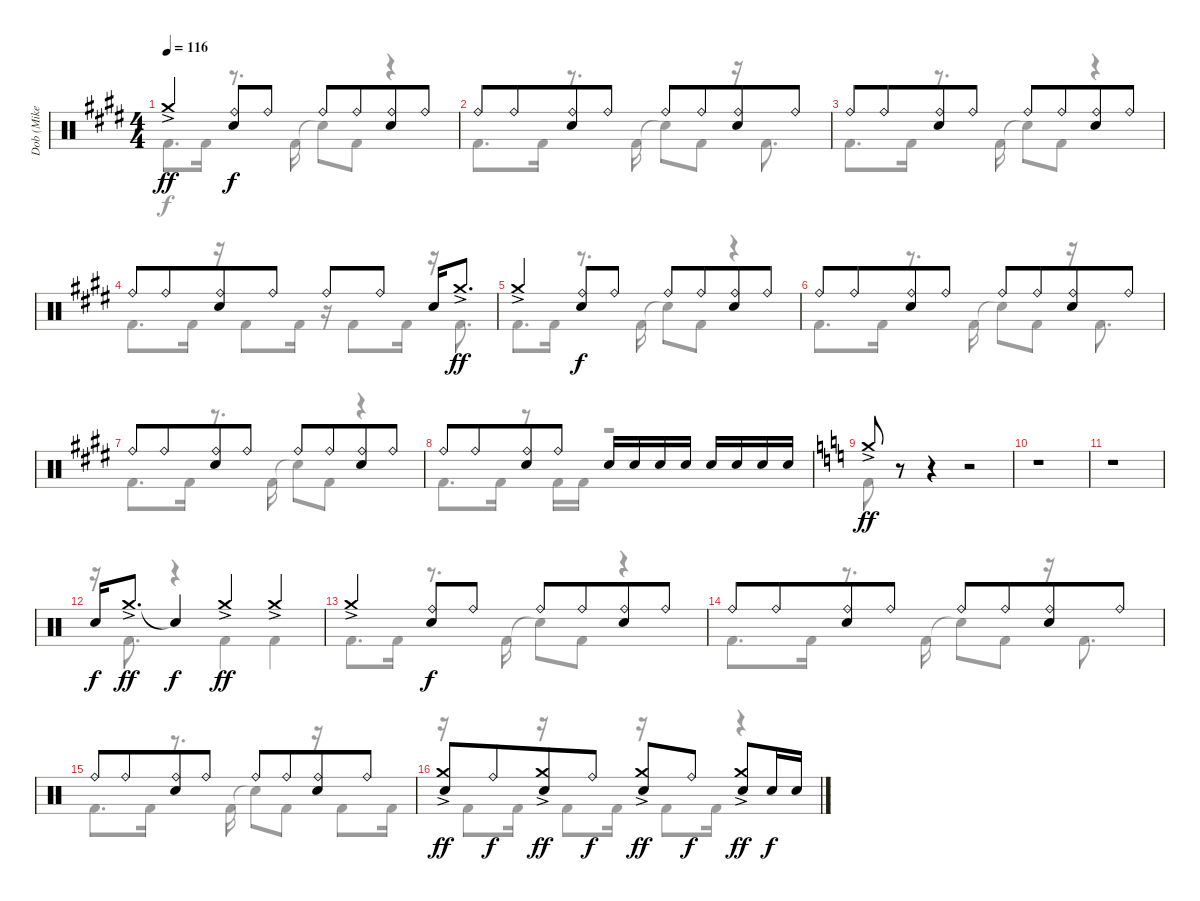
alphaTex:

\track ("Dob (Mike Terrana)" "Dob (Mike ") {instrument percussion}
\staff {score}
\articulation defaults
\voice
\ts (4 4)
\tempo 116
\clef neutral
\ks e "Crash medium (hit)"{ac}.4{dy ff}
("Ride (bell)" "Electric Snare (hit)").8{dy f} "Ride (bell)".8 "Ride (bell)".8 "Ride (bell)".8{beam merge} ("Ride (bell)" "Electric Snare (hit)").8 "Ride (bell)".8 |
"Ride (bell)".8 "Ride (bell)".8{beam merge} ("Ride (bell)" "Electric Snare (hit)").8 "Ride (bell)".8 "Ride (bell)".8 "Ride (bell)".8{beam merge} ("Ride (bell)" "Electric Snare (hit)").8 "Ride (bell)".8 |
"Ride (bell)".8 "Ride (bell)".8{beam merge} ("Ride (bell)" "Electric Snare (hit)").8 "Ride (bell)".8 "Ride (bell)".8 "Ride (bell)".8{beam merge} ("Ride (bell)" "Electric Snare (hit)").8 "Ride (bell)".8 |
"Ride (bell)".8 "Ride (bell)".8{beam merge} ("Ride (bell)" "Electric Snare (hit)").8 "Ride (bell)".8 "Ride (bell)".8 "Ride (bell)".8 "Electric Snare (hit)".16 "Crash medium (hit)"{ac}.8{d dy ff} |
"Crash medium (hit)"{ac}.4 ("Ride (bell)" "Electric Snare (hit)").8{dy f} "Ride (bell)".8 "Ride (bell)".8 "Ride (bell)".8{beam merge} ("Ride (bell)" "Electric Snare (hit)").8 "Ride (bell)".8 |
"Ride (bell)".8 "Ride (bell)".8{beam merge} ("Ride (bell)" "Electric Snare (hit)").8 "Ride (bell)".8 "Ride (bell)".8 "Ride (bell)".8{beam merge} ("Ride (bell)" "Electric Snare (hit)").8 "Ride (bell)".8 |
"Ride (bell)".8 "Ride (bell)".8{beam merge} ("Ride (bell)" "Electric Snare (hit)").8 "Ride (bell)".8 "Ride (bell)".8 "Ride (bell)".8{beam merge} ("Ride (bell)" "Electric Snare (hit)").8 "Ride (bell)".8 |
"Ride (bell)".8 "Ride (bell)".8{beam merge} ("Ride (bell)" "Electric Snare (hit)").8 "Ride (bell)".8 "Electric Snare (hit)".16 "Electric Snare (hit)".16 "Electric Snare (hit)".16 "Electric Snare (hit)".16 "Electric Snare (hit)".16 "Electric Snare (hit)".16 "Electric Snare (hit)".16 "Electric Snare (hit)".16 |
\ks c "Crash medium (hit)"{ac}.8{dy ff}
r.8 r.4 r.2 |
r.1 |
r.1 |
"Electric Snare (hit)".16{dy f} "Crash medium (hit)"{ac}.8{d dy ff} "Snare (hit)"{t}.4{dy f} "Crash medium (hit)"{ac}.4{dy ff} "Crash medium (hit)"{ac}.4 |
"Crash medium (hit)"{ac}.4 ("Ride (bell)" "Electric Snare (hit)").8{dy f} "Ride (bell)".8 "Ride (bell)".8 "Ride (bell)".8{beam merge} ("Ride (bell)" "Electric Snare (hit)").8 "Ride (bell)".8 |
"Ride (bell)".8 "Ride (bell)".8{beam merge} ("Ride (bell)" "Electric Snare (hit)").8 "Ride (bell)".8 "Ride (bell)".8 "Ride (bell)".8{beam merge} ("Ride (bell)" "Electric Snare (hit)").8 "Ride (bell)".8 |
"Ride (bell)".8 "Ride (bell)".8{beam merge} ("Ride (bell)" "Electric Snare (hit)").8 "Ride (bell)".8 "Ride (bell)".8 "Ride (bell)".8{beam merge} ("Ride (bell)" "Electric Snare (hit)").8 "Ride (bell)".8 |
("Crash medium (hit)"{ac} "Electric Snare (hit)").8{dy ff} "Ride (bell)".8{dy f beam merge} ("Crash medium (hit)"{ac} "Electric Snare (hit)").8{dy ff} "Ride (bell)".8{dy f} ("Crash medium (hit)"{ac} "Electric Snare (hit)").8{dy ff} "Ride (bell)".8{dy f} ("Crash medium (hit)"{ac} "Electric Snare (hit)").8{dy ff} "Electric Snare (hit)".16{dy f} "Electric Snare (hit)".16
\voice
\clef neutral
\ottava regular
\simile none
\ks e "Kick (hit) 2".8{d dy f} "Kick (hit) 2".16
r.8{d} "Kick (hit) 2".16 "Snare (hit)"{t}.8 "Kick (hit) 2".8 r.4 |
"Kick (hit) 2".8{d} "Kick (hit) 2".16 r.8{d} "Kick (hit) 2".16 "Snare (hit)"{t}.8 "Kick (hit) 2".8 r.16 "Kick (hit) 2".8{d} |
"Kick (hit) 2".8{d} "Kick (hit) 2".16 r.8{d} "Kick (hit) 2".16 "Snare (hit)"{t}.8 "Kick (hit) 2".8 r.4 |
"Kick (hit) 2".8{d} "Kick (hit) 2".16 r.16 "Kick (hit) 2".8 "Kick (hit) 2".16 r.16 "Kick (hit) 2".8 "Kick (hit) 2".16 r.16 "Kick (hit) 2".8{d} |
"Kick (hit) 2".8{d} "Kick (hit) 2".16 r.8{d} "Kick (hit) 2".16 "Snare (hit)"{t}.8 "Kick (hit) 2".8 r.4 |
"Kick (hit) 2".8{d} "Kick (hit) 2".16 r.8{d} "Kick (hit) 2".16 "Snare (hit)"{t}.8 "Kick (hit) 2".8 r.16 "Kick (hit) 2".8{d} |
"Kick (hit) 2".8{d} "Kick (hit) 2".16 r.8{d} "Kick (hit) 2".16 "Snare (hit)"{t}.8 "Kick (hit) 2".8 r.4 |
"Kick (hit) 2".8{d} "Kick (hit) 2".16 r.8 "Kick (hit) 2".16 "Kick (hit) 2".16 r.2 |
\ks c "Kick (hit) 2".8
r.8 r.4 r.2 |
r.1 |
r.1 |
r.16 "Kick (hit) 2".8{d} r.4 "Kick (hit) 2".4 "Kick (hit) 2".4 |
"Kick (hit) 2".8{d} "Kick (hit) 2".16 r.8{d} "Kick (hit) 2".16 "Snare (hit)"{t}.8 "Kick (hit) 2".8 r.4 |
"Kick (hit) 2".8{d} "Kick (hit) 2".16 r.8{d} "Kick (hit) 2".16 "Snare (hit)"{t}.8 "Kick (hit) 2".8 r.16 "Kick (hit) 2".8{d} |
"Kick (hit) 2".8{d} "Kick (hit) 2".16 r.8{d} "Kick (hit) 2".16 "Snare (hit)"{t}.8 "Kick (hit) 2".8 r.16 "Kick (hit) 2".8 "Kick (hit) 2".16 |
r.16 "Kick (hit) 2".8 "Kick (hit) 2".16 r.16 "Kick (hit) 2".8 "Kick (hit) 2".16 r.16 "Kick (hit) 2".8 "Kick (hit) 2".16 r.4
